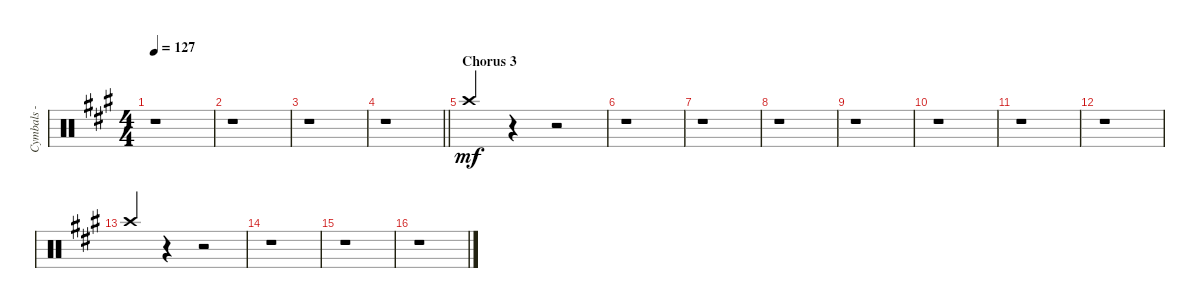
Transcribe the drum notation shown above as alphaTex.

\track ("Cymbals - crash" "Cymbals - ") {instrument percussion}
\staff {score}
\articulation defaults
\ts (4 4)
\tempo 127
\clef neutral
\ks a
r.1{dy mf} |
r.1 |
r.1 |
\barLineRight lightlight
r.1 |
\section ("" "Chorus 3")
"Crash high (hit)".4{beam Up} r.4 r.2 |
r.1 |
r.1 |
r.1 |
r.1 |
r.1 |
r.1 |
r.1 |
"Crash high (hit)".4{beam Up} r.4 r.2 |
r.1 |
r.1 |
r.1
